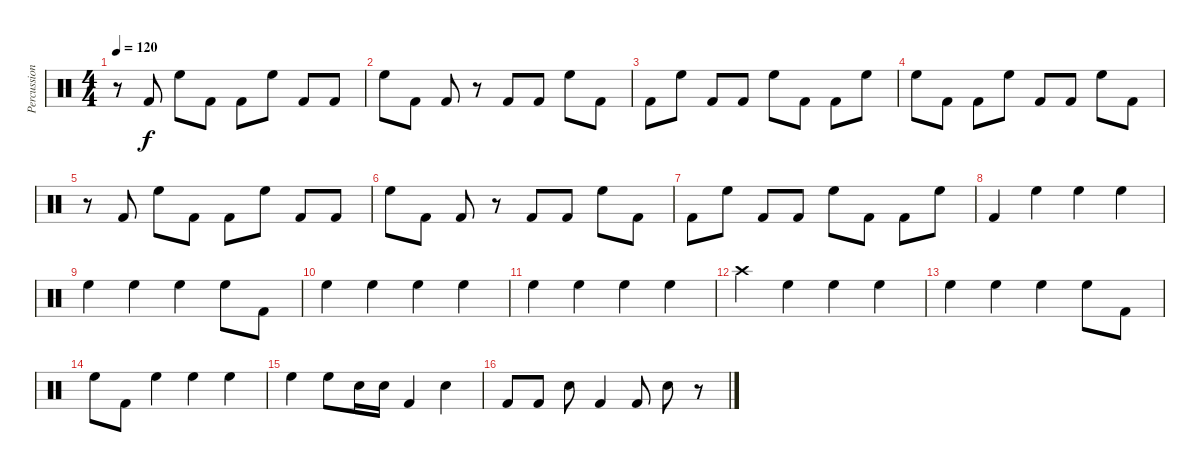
\track ("Percussion" "Percussion") {instrument percussion}
\staff {score}
\articulation defaults
\ts (4 4)
\tempo 120
\clef neutral
\ks c
r.8{dy f} "Kick (hit) 2".8 "High Floor Tom (hit)".8 "Kick (hit) 2".8 "Kick (hit) 2".8 "High Floor Tom (hit)".8 "Kick (hit) 2".8 "Kick (hit) 2".8 |
"High Floor Tom (hit)".8 "Kick (hit) 2".8 "Kick (hit) 2".8 r.8 "Kick (hit) 2".8 "Kick (hit) 2".8 "High Floor Tom (hit)".8 "Kick (hit) 2".8 |
"Kick (hit) 2".8 "High Floor Tom (hit)".8 "Kick (hit) 2".8 "Kick (hit) 2".8 "High Floor Tom (hit)".8 "Kick (hit) 2".8 "Kick (hit) 2".8 "High Floor Tom (hit)".8 |
"High Floor Tom (hit)".8 "Kick (hit) 2".8 "Kick (hit) 2".8 "High Floor Tom (hit)".8 "Kick (hit) 2".8 "Kick (hit) 2".8 "High Floor Tom (hit)".8 "Kick (hit) 2".8 |
r.8 "Kick (hit) 2".8 "High Floor Tom (hit)".8 "Kick (hit) 2".8 "Kick (hit) 2".8 "High Floor Tom (hit)".8 "Kick (hit) 2".8 "Kick (hit) 2".8 |
"High Floor Tom (hit)".8 "Kick (hit) 2".8 "Kick (hit) 2".8 r.8 "Kick (hit) 2".8 "Kick (hit) 2".8 "High Floor Tom (hit)".8 "Kick (hit) 2".8 |
"Kick (hit) 2".8 "High Floor Tom (hit)".8 "Kick (hit) 2".8 "Kick (hit) 2".8 "High Floor Tom (hit)".8 "Kick (hit) 2".8 "Kick (hit) 2".8 "High Floor Tom (hit)".8 |
"Kick (hit) 2".4 "High Floor Tom (hit)".4 "High Floor Tom (hit)".4 "High Floor Tom (hit)".4 |
"High Floor Tom (hit)".4 "High Floor Tom (hit)".4 "High Floor Tom (hit)".4 "High Floor Tom (hit)".8 "Kick (hit) 2".8 |
"High Floor Tom (hit)".4 "High Floor Tom (hit)".4 "High Floor Tom (hit)".4 "High Floor Tom (hit)".4 |
"High Floor Tom (hit)".4 "High Floor Tom (hit)".4 "High Floor Tom (hit)".4 "High Floor Tom (hit)".4 |
"Crash high (hit)".4 "High Floor Tom (hit)".4 "High Floor Tom (hit)".4 "High Floor Tom (hit)".4 |
"High Floor Tom (hit)".4 "High Floor Tom (hit)".4 "High Floor Tom (hit)".4 "High Floor Tom (hit)".8 "Kick (hit) 2".8 |
"High Floor Tom (hit)".8 "Kick (hit) 2".8 "High Floor Tom (hit)".4 "High Floor Tom (hit)".4 "High Floor Tom (hit)".4 |
"High Floor Tom (hit)".4 "High Floor Tom (hit)".8 "Electric Snare (hit)".16 "Electric Snare (hit)".16 "Kick (hit) 2".4 "Electric Snare (hit)".4 |
"Kick (hit) 2".8 "Kick (hit) 2".8 "Electric Snare (hit)".8 "Kick (hit) 2".4 "Kick (hit) 2".8 "Electric Snare (hit)".8 r.8
